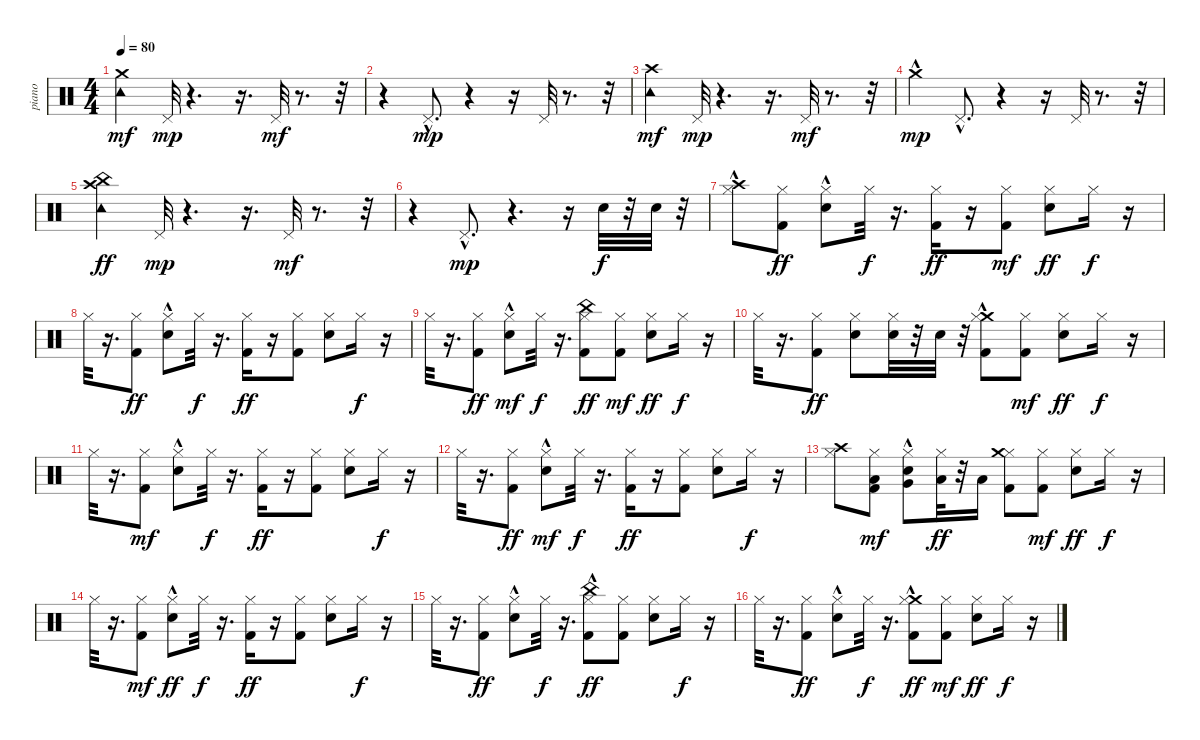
\track ("piano" "piano") {instrument percussion}
\staff {score}
\articulation defaults
\ts (4 4)
\tempo 80
\clef neutral
\ks c
("Crash medium (hit)" "Tambourine (hit)").4{dy mf} "Pedal Hi-Hat (hit)".32{dy mp} r.4{d} r.16{d} "Pedal Hi-Hat (hit)".32{dy mf} r.8{d} r.32 |
r.4 "Pedal Hi-Hat (hit)"{hac}.8{d dy mp} r.4 r.16 "Pedal Hi-Hat (hit)".32 r.8{d} r.32 |
("Tambourine (hit)" "Crash high (hit)").4{dy mf} "Pedal Hi-Hat (hit)".32{dy mp} r.4{d} r.16{d} "Pedal Hi-Hat (hit)".32{dy mf} r.8{d} r.32 |
"Crash medium (hit)"{hac}.4{dy mp} "Pedal Hi-Hat (hit)"{hac}.8{d} r.4 r.16 "Pedal Hi-Hat (hit)".32 r.8{d} r.32 |
("Tambourine (hit)" "Crash high (hit)" "China (hit)").4{dy ff} "Pedal Hi-Hat (hit)".32{dy mp} r.4{d} r.16{d} "Pedal Hi-Hat (hit)".32{dy mf} r.8{d} r.32 |
r.4 "Pedal Hi-Hat (hit)"{hac}.8{d dy mp} r.4{d} r.16 "Snare (hit) 2".32{dy f} r.32 "Snare (hit) 2".32 r.32 |
("Crash high (hit)"{hac} "Hi-Hat (closed)").8 ("Hi-Hat (closed)" "Kick (hit) 2").8{dy ff} ("Hi-Hat (closed)" "Snare (hit) 2"{hac}).8 "Hi-Hat (closed)".32{dy f} r.16{d} ("Hi-Hat (closed)" "Kick (hit) 2").16{dy ff} r.16 ("Kick (hit) 2" "Hi-Hat (closed)").8{dy mf} ("Snare (hit) 2" "Hi-Hat (closed)").8{dy ff} "Hi-Hat (closed)".16{dy f} r.16 |
"Hi-Hat (closed)".32 r.16{d} ("Hi-Hat (closed)" "Kick (hit) 2").8{dy ff} ("Hi-Hat (closed)" "Snare (hit) 2"{hac}).8 "Hi-Hat (closed)".32{dy f} r.16{d} ("Kick (hit) 2" "Hi-Hat (closed)").16{dy ff} r.16 ("Hi-Hat (closed)" "Kick (hit) 2").8 ("Snare (hit) 2" "Hi-Hat (closed)").8 "Hi-Hat (closed)".16{dy f} r.16 |
"Hi-Hat (closed)".32 r.16{d} ("Hi-Hat (closed)" "Kick (hit) 2").8{dy ff} ("Snare (hit) 2"{hac} "Hi-Hat (closed)").8{dy mf} "Hi-Hat (closed)".32{dy f} r.16{d} ("China (hit)" "Kick (hit) 2" "Hi-Hat (closed)").8{dy ff} ("Kick (hit) 2" "Hi-Hat (closed)").8{dy mf} ("Hi-Hat (closed)" "Snare (hit) 2").8{dy ff} "Hi-Hat (closed)".16{dy f} r.16 |
"Hi-Hat (closed)".32 r.16{d} ("Hi-Hat (closed)" "Kick (hit) 2").8{dy ff} ("Hi-Hat (closed)" "Snare (hit) 2").8 ("Snare (hit) 2" "Hi-Hat (closed)").32 r.32 "Snare (hit) 2".32 r.32 ("Kick (hit) 2" "Crash medium (hit)"{hac} "Hi-Hat (closed)").8 ("Kick (hit) 2" "Hi-Hat (closed)").8{dy mf} ("Snare (hit) 2" "Hi-Hat (closed)").8{dy ff} "Hi-Hat (closed)".16{dy f} r.16 |
"Hi-Hat (closed)".32 r.16{d} ("Kick (hit) 2" "Hi-Hat (closed)").8{dy mf} ("Snare (hit) 2"{hac} "Hi-Hat (closed)").8 "Hi-Hat (closed)".32{dy f} r.16{d} ("Kick (hit) 2" "Hi-Hat (closed)").16{dy ff} r.16 ("Hi-Hat (closed)" "Kick (hit) 2").8 ("Snare (hit) 2" "Hi-Hat (closed)").8 "Hi-Hat (closed)".16{dy f} r.16 |
"Hi-Hat (closed)".32 r.16{d} ("Hi-Hat (closed)" "Kick (hit) 2").8{dy ff} ("Snare (hit) 2"{hac} "Hi-Hat (closed)").8{dy mf} "Hi-Hat (closed)".32{dy f} r.16{d} ("Kick (hit) 2" "Hi-Hat (closed)").16{dy ff} r.16 ("Hi-Hat (closed)" "Kick (hit) 2").8 ("Hi-Hat (closed)" "Snare (hit) 2").8 "Hi-Hat (closed)".16{dy f} r.16 |
("Crash high (hit)" "Hi-Hat (closed)").8 ("Kick (hit) 2" "Low Tom (hit)" "Hi-Hat (closed)").8{dy mf} ("Very Low Tom (hit)" "Snare (hit) 2"{hac} "Hi-Hat (closed)").8 ("Hi-Hat (closed)" "Low Floor Tom (hit)").32{dy ff} r.32 "Low Floor Tom (hit)".16 ("Hi-Hat (closed)" "Crash medium (hit)" "Kick (hit) 2").8 ("Kick (hit) 2" "Hi-Hat (closed)").8{dy mf} ("Snare (hit) 2" "Hi-Hat (closed)").8{dy ff} "Hi-Hat (closed)".16{dy f} r.16 |
"Hi-Hat (closed)".32 r.16{d} ("Kick (hit) 2" "Hi-Hat (closed)").8{dy mf} ("Hi-Hat (closed)" "Snare (hit) 2"{hac}).8{dy ff} "Hi-Hat (closed)".32{dy f} r.16{d} ("Kick (hit) 2" "Hi-Hat (closed)").16{dy ff} r.16 ("Hi-Hat (closed)" "Kick (hit) 2").8 ("Snare (hit) 2" "Hi-Hat (closed)").8 "Hi-Hat (closed)".16{dy f} r.16 |
"Hi-Hat (closed)".32 r.16{d} ("Hi-Hat (closed)" "Kick (hit) 2").8{dy ff} ("Hi-Hat (closed)" "Snare (hit) 2"{hac}).8 "Hi-Hat (closed)".32{dy f} r.16{d} ("Hi-Hat (closed)" "Kick (hit) 2" "China (hit)"{hac}).8{dy ff} ("Hi-Hat (closed)" "Kick (hit) 2").8 ("Hi-Hat (closed)" "Snare (hit) 2").8 "Hi-Hat (closed)".16{dy f} r.16 |
"Hi-Hat (closed)".32 r.16{d} ("Hi-Hat (closed)" "Kick (hit) 2").8{dy ff} ("Hi-Hat (closed)" "Snare (hit) 2"{hac}).8 "Hi-Hat (closed)".32{dy f} r.16{d} ("Crash medium (hit)"{hac} "Hi-Hat (closed)" "Kick (hit) 2").8{dy ff} ("Kick (hit) 2" "Hi-Hat (closed)").8{dy mf} ("Snare (hit) 2" "Hi-Hat (closed)").8{dy ff} "Hi-Hat (closed)".16{dy f} r.16
